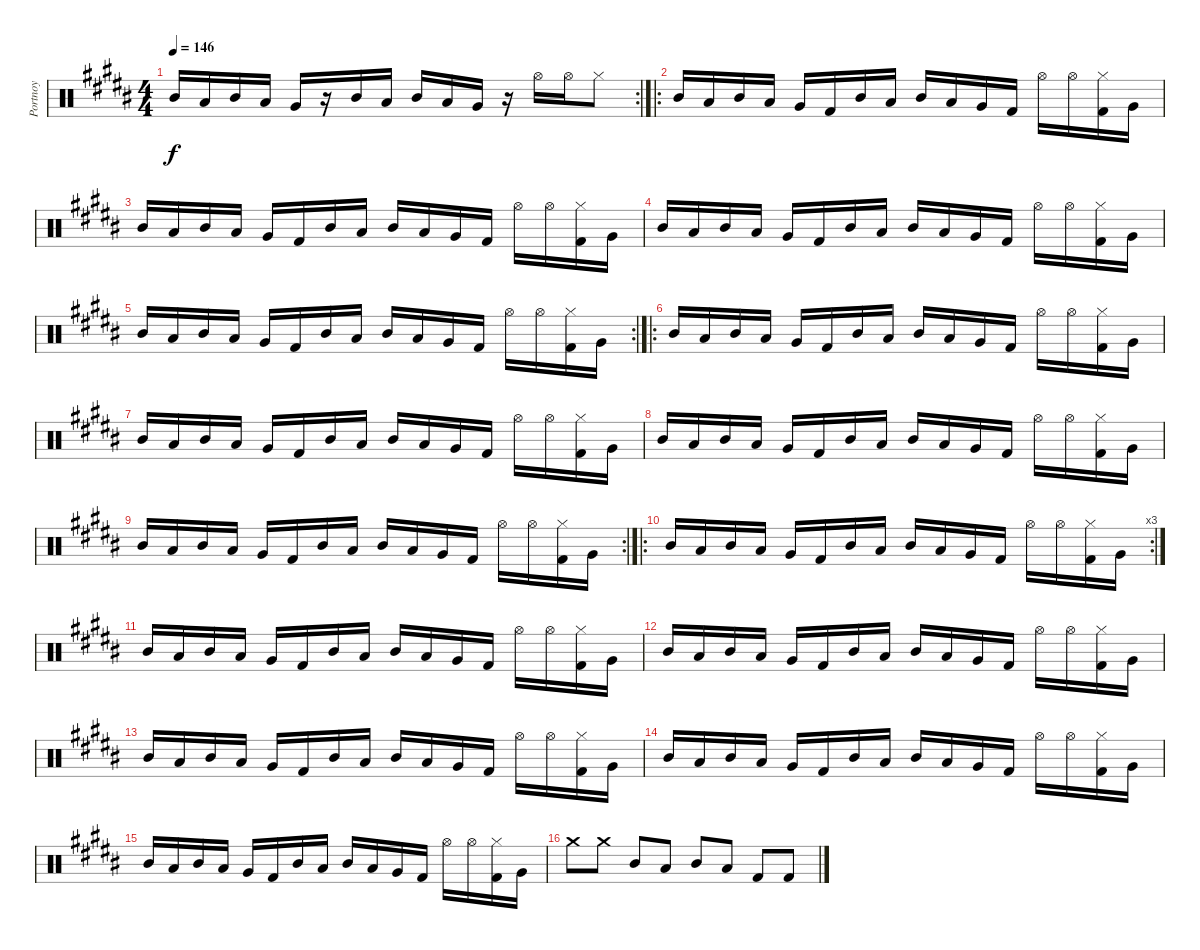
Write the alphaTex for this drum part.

\track ("Portnoy" "Portnoy") {instrument percussion}
\staff {score}
\articulation defaults
\rc 2
\ts (4 4)
\tempo 146
\clef neutral
\ks g#minor "Mid Tom (hit)".16{dy f} "Low Tom (hit)".16 "Mid Tom (hit)".16 "Low Tom (hit)".16 "Very Low Tom (hit)".16
r.16 "Mid Tom (hit)".16 "Low Tom (hit)".16 "Mid Tom (hit)".16 "Low Tom (hit)".16 "Very Low Tom (hit)".16 r.16 "Hi-Hat (open)".16 "Hi-Hat (open)".16 "Hi-Hat (closed)".8 |
\ro
\ks b "Mid Tom (hit)".16 "Low Tom (hit)".16 "Mid Tom (hit)".16 "Low Tom (hit)".16 "Very Low Tom (hit)".16 "Kick (hit) 2".16 "Mid Tom (hit)".16 "Low Tom (hit)".16 "Mid Tom (hit)".16 "Low Tom (hit)".16 "Very Low Tom (hit)".16 "Kick (hit) 2".16 "Hi-Hat (open)".16 "Hi-Hat (open)".16
("Hi-Hat (closed)" "Kick (hit) 2").16 "Very Low Tom (hit)".16 |
\ks g#minor "Mid Tom (hit)".16 "Low Tom (hit)".16 "Mid Tom (hit)".16 "Low Tom (hit)".16 "Very Low Tom (hit)".16 "Kick (hit) 2".16 "Mid Tom (hit)".16 "Low Tom (hit)".16 "Mid Tom (hit)".16 "Low Tom (hit)".16 "Very Low Tom (hit)".16 "Kick (hit) 2".16 "Hi-Hat (open)".16 "Hi-Hat (open)".16
("Hi-Hat (closed)" "Kick (hit) 2").16 "Very Low Tom (hit)".16 |
"Mid Tom (hit)".16 "Low Tom (hit)".16 "Mid Tom (hit)".16 "Low Tom (hit)".16 "Very Low Tom (hit)".16 "Kick (hit) 2".16 "Mid Tom (hit)".16 "Low Tom (hit)".16 "Mid Tom (hit)".16 "Low Tom (hit)".16 "Very Low Tom (hit)".16 "Kick (hit) 2".16 "Hi-Hat (open)".16 "Hi-Hat (open)".16 ("Hi-Hat (closed)" "Kick (hit) 2").16 "Very Low Tom (hit)".16 |
\rc 2 "Mid Tom (hit)".16 "Low Tom (hit)".16 "Mid Tom (hit)".16 "Low Tom (hit)".16 "Very Low Tom (hit)".16 "Kick (hit) 2".16 "Mid Tom (hit)".16 "Low Tom (hit)".16 "Mid Tom (hit)".16 "Low Tom (hit)".16 "Very Low Tom (hit)".16 "Kick (hit) 2".16 "Hi-Hat (open)".16 "Hi-Hat (open)".16
("Hi-Hat (closed)" "Kick (hit) 2").16 "Very Low Tom (hit)".16 |
\ro
\ks b "Mid Tom (hit)".16 "Low Tom (hit)".16 "Mid Tom (hit)".16 "Low Tom (hit)".16 "Very Low Tom (hit)".16 "Kick (hit) 2".16 "Mid Tom (hit)".16 "Low Tom (hit)".16 "Mid Tom (hit)".16 "Low Tom (hit)".16 "Very Low Tom (hit)".16 "Kick (hit) 2".16 "Hi-Hat (open)".16 "Hi-Hat (open)".16
("Hi-Hat (closed)" "Kick (hit) 2").16 "Very Low Tom (hit)".16 |
\ks g#minor "Mid Tom (hit)".16 "Low Tom (hit)".16 "Mid Tom (hit)".16 "Low Tom (hit)".16 "Very Low Tom (hit)".16 "Kick (hit) 2".16 "Mid Tom (hit)".16 "Low Tom (hit)".16 "Mid Tom (hit)".16 "Low Tom (hit)".16 "Very Low Tom (hit)".16 "Kick (hit) 2".16 "Hi-Hat (open)".16 "Hi-Hat (open)".16
("Hi-Hat (closed)" "Kick (hit) 2").16 "Very Low Tom (hit)".16 |
\ks b "Mid Tom (hit)".16 "Low Tom (hit)".16 "Mid Tom (hit)".16 "Low Tom (hit)".16 "Very Low Tom (hit)".16 "Kick (hit) 2".16 "Mid Tom (hit)".16 "Low Tom (hit)".16 "Mid Tom (hit)".16 "Low Tom (hit)".16 "Very Low Tom (hit)".16 "Kick (hit) 2".16 "Hi-Hat (open)".16 "Hi-Hat (open)".16
("Hi-Hat (closed)" "Kick (hit) 2").16 "Very Low Tom (hit)".16 |
\rc 2
\ks g#minor "Mid Tom (hit)".16 "Low Tom (hit)".16 "Mid Tom (hit)".16 "Low Tom (hit)".16 "Very Low Tom (hit)".16 "Kick (hit) 2".16 "Mid Tom (hit)".16 "Low Tom (hit)".16 "Mid Tom (hit)".16 "Low Tom (hit)".16 "Very Low Tom (hit)".16 "Kick (hit) 2".16 "Hi-Hat (open)".16 "Hi-Hat (open)".16
("Hi-Hat (closed)" "Kick (hit) 2").16 "Very Low Tom (hit)".16 |
\ro
\rc 3
\ks b "Mid Tom (hit)".16 "Low Tom (hit)".16 "Mid Tom (hit)".16 "Low Tom (hit)".16 "Very Low Tom (hit)".16 "Kick (hit) 2".16 "Mid Tom (hit)".16 "Low Tom (hit)".16 "Mid Tom (hit)".16 "Low Tom (hit)".16 "Very Low Tom (hit)".16 "Kick (hit) 2".16 "Hi-Hat (open)".16 "Hi-Hat (open)".16
("Hi-Hat (closed)" "Kick (hit) 2").16 "Very Low Tom (hit)".16 |
\ks g#minor "Mid Tom (hit)".16 "Low Tom (hit)".16 "Mid Tom (hit)".16 "Low Tom (hit)".16 "Very Low Tom (hit)".16 "Kick (hit) 2".16 "Mid Tom (hit)".16 "Low Tom (hit)".16 "Mid Tom (hit)".16 "Low Tom (hit)".16 "Very Low Tom (hit)".16 "Kick (hit) 2".16 "Hi-Hat (open)".16 "Hi-Hat (open)".16
("Hi-Hat (closed)" "Kick (hit) 2").16 "Very Low Tom (hit)".16 |
\ks b "Mid Tom (hit)".16 "Low Tom (hit)".16 "Mid Tom (hit)".16 "Low Tom (hit)".16 "Very Low Tom (hit)".16 "Kick (hit) 2".16 "Mid Tom (hit)".16 "Low Tom (hit)".16 "Mid Tom (hit)".16 "Low Tom (hit)".16 "Very Low Tom (hit)".16 "Kick (hit) 2".16 "Hi-Hat (open)".16 "Hi-Hat (open)".16
("Hi-Hat (closed)" "Kick (hit) 2").16 "Very Low Tom (hit)".16 |
\ks g#minor "Mid Tom (hit)".16 "Low Tom (hit)".16 "Mid Tom (hit)".16 "Low Tom (hit)".16 "Very Low Tom (hit)".16 "Kick (hit) 2".16 "Mid Tom (hit)".16 "Low Tom (hit)".16 "Mid Tom (hit)".16 "Low Tom (hit)".16 "Very Low Tom (hit)".16 "Kick (hit) 2".16 "Hi-Hat (open)".16 "Hi-Hat (open)".16
("Hi-Hat (closed)" "Kick (hit) 2").16 "Very Low Tom (hit)".16 |
\ks b "Mid Tom (hit)".16 "Low Tom (hit)".16 "Mid Tom (hit)".16 "Low Tom (hit)".16 "Very Low Tom (hit)".16 "Kick (hit) 2".16 "Mid Tom (hit)".16 "Low Tom (hit)".16 "Mid Tom (hit)".16 "Low Tom (hit)".16 "Very Low Tom (hit)".16 "Kick (hit) 2".16 "Hi-Hat (open)".16 "Hi-Hat (open)".16
("Hi-Hat (closed)" "Kick (hit) 2").16 "Very Low Tom (hit)".16 |
\ks g#minor "Mid Tom (hit)".16 "Low Tom (hit)".16 "Mid Tom (hit)".16 "Low Tom (hit)".16 "Very Low Tom (hit)".16 "Kick (hit) 2".16 "Mid Tom (hit)".16 "Low Tom (hit)".16 "Mid Tom (hit)".16 "Low Tom (hit)".16 "Very Low Tom (hit)".16 "Kick (hit) 2".16 "Hi-Hat (open)".16 "Hi-Hat (open)".16
("Hi-Hat (closed)" "Kick (hit) 2").16 "Very Low Tom (hit)".16 |
"Crash medium (hit)".8 "Crash medium (hit)".8 "Mid Tom (hit)".8 "Low Tom (hit)".8 "Mid Tom (hit)".8 "Low Tom (hit)".8 "Kick (hit) 2".8 "Kick (hit) 2".8
